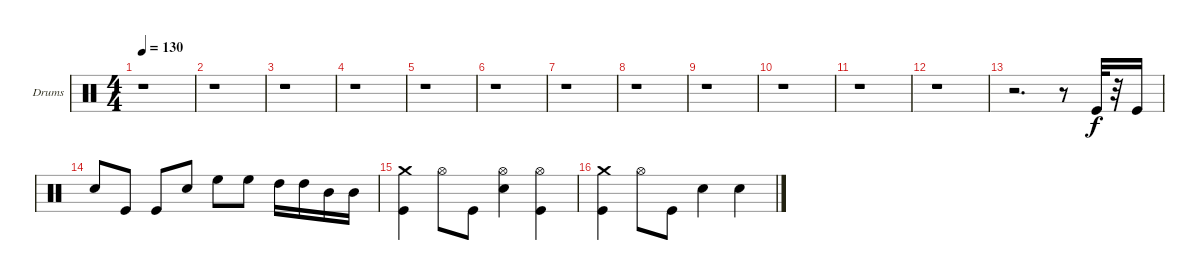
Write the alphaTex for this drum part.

\bracketExtendMode groupsimilarinstruments
\firstSystemTrackNameOrientation horizontal
\otherSystemsTrackNameOrientation horizontal
\track ("Drumkit" "Drums") {instrument percussion}
\staff {score}
\articulation defaults
\ts (4 4)
\tempo 130
\clef neutral
\ks c
r.1{dy f} |
r.1 |
r.1 |
r.1 |
r.1 |
r.1 |
r.1 |
r.1 |
r.1 |
r.1 |
r.1 |
r.1 |
r.2{d} r.8 "Kick (hit)".32 r.32 "Kick (hit)".16 |
"Snare (hit) 2".8 "Kick (hit)".8 "Kick (hit)".8 "Snare (hit) 2".8 "High Floor Tom (hit)".8 "High Floor Tom (hit)".8 "High Tom (hit)".16 "High Tom (hit)".16 "Mid Tom (hit)".16 "Mid Tom (hit)".16 |
("Crash medium (hit)" "Kick (hit)").4 "Hi-Hat (open)".8 "Kick (hit)".8 ("Hi-Hat (open)" "Snare (hit) 2").4 ("Kick (hit)" "Hi-Hat (open)").4 |
("Crash medium (hit)" "Kick (hit)").4 "Hi-Hat (open)".8 "Kick (hit)".8 "Snare (hit) 2".4 "Snare (hit) 2".4
